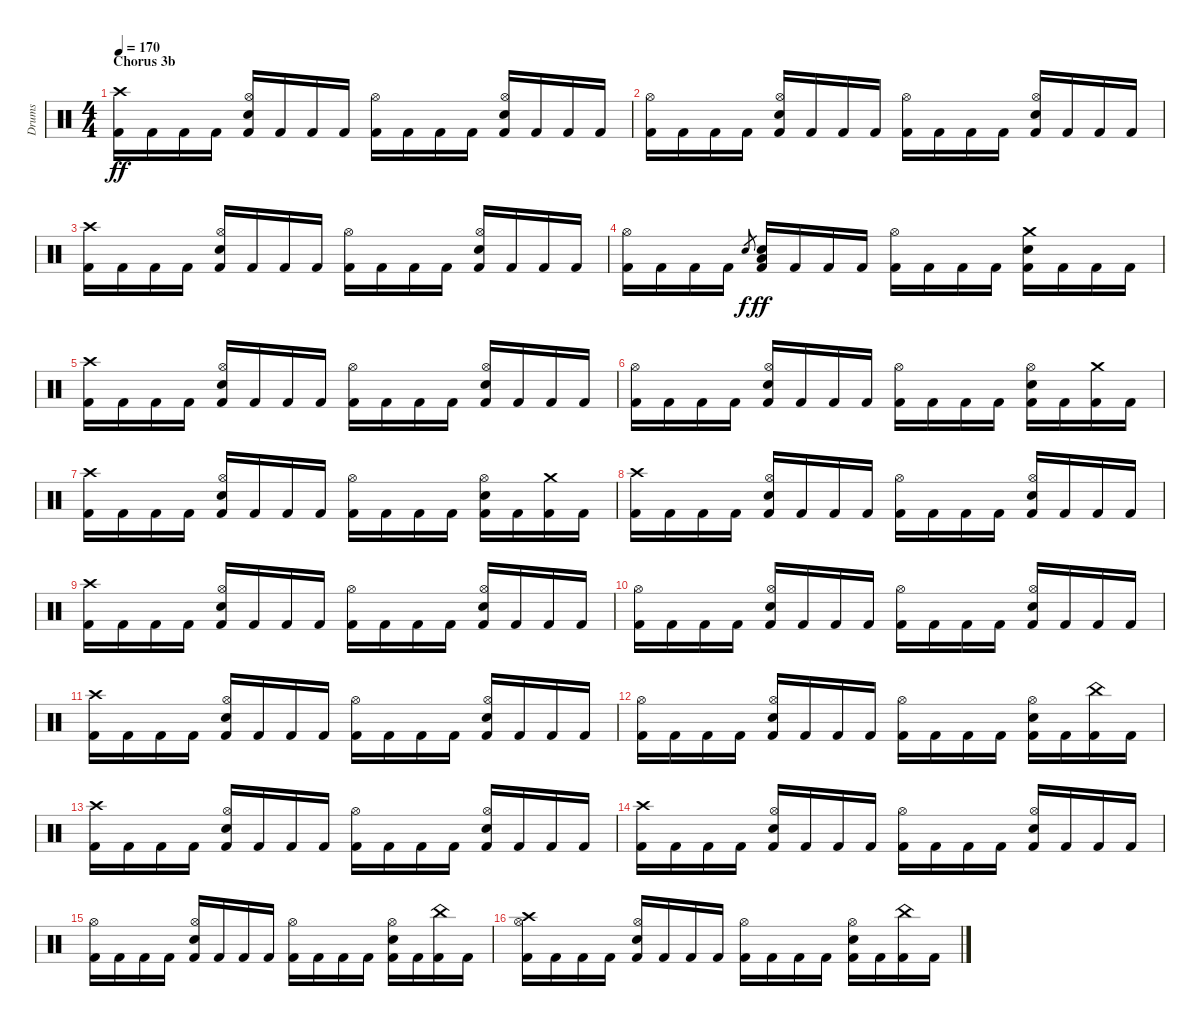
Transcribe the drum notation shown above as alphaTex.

\track ("Drums" "Drums") {instrument percussion}
\staff {score}
\articulation defaults
\ts (4 4)
\section ("" "Chorus 3b")
\tempo 170
\clef neutral
\ks c
("Crash high (hit)" "Kick (hit) 2").16{dy ff} "Kick (hit) 2".16 "Kick (hit) 2".16 "Kick (hit) 2".16 ("Hi-Hat (open)" "Snare (hit) 2" "Kick (hit) 2").16 "Kick (hit) 2".16 "Kick (hit) 2".16 "Kick (hit) 2".16 ("Hi-Hat (open)" "Kick (hit) 2").16 "Kick (hit) 2".16 "Kick (hit) 2".16 "Kick (hit) 2".16 ("Hi-Hat (open)" "Snare (hit) 2" "Kick (hit) 2").16 "Kick (hit) 2".16 "Kick (hit) 2".16 "Kick (hit) 2".16 |
("Hi-Hat (open)" "Kick (hit) 2").16 "Kick (hit) 2".16 "Kick (hit) 2".16 "Kick (hit) 2".16 ("Hi-Hat (open)" "Snare (hit) 2" "Kick (hit) 2").16 "Kick (hit) 2".16 "Kick (hit) 2".16 "Kick (hit) 2".16 ("Hi-Hat (open)" "Kick (hit) 2").16 "Kick (hit) 2".16 "Kick (hit) 2".16 "Kick (hit) 2".16 ("Hi-Hat (open)" "Snare (hit) 2" "Kick (hit) 2").16 "Kick (hit) 2".16 "Kick (hit) 2".16 "Kick (hit) 2".16 |
("Crash high (hit)" "Kick (hit) 2").16 "Kick (hit) 2".16 "Kick (hit) 2".16 "Kick (hit) 2".16 ("Hi-Hat (open)" "Snare (hit) 2" "Kick (hit) 2").16 "Kick (hit) 2".16 "Kick (hit) 2".16 "Kick (hit) 2".16 ("Hi-Hat (open)" "Kick (hit) 2").16 "Kick (hit) 2".16 "Kick (hit) 2".16 "Kick (hit) 2".16 ("Hi-Hat (open)" "Snare (hit) 2" "Kick (hit) 2").16 "Kick (hit) 2".16 "Kick (hit) 2".16 "Kick (hit) 2".16 |
("Hi-Hat (open)" "Kick (hit) 2").16 "Kick (hit) 2".16 "Kick (hit) 2".16 "Kick (hit) 2".16 "Electric Snare (hit)".8{gr dy f} ("Electric Snare (hit)" "Low Tom (hit)" "Kick (hit) 2").16{dy ff} "Kick (hit) 2".16 "Kick (hit) 2".16 "Kick (hit) 2".16 ("Hi-Hat (open)" "Kick (hit) 2").16 "Kick (hit) 2".16 "Kick (hit) 2".16 "Kick (hit) 2".16 ("Crash medium (hit)" "Snare (hit) 2" "Kick (hit) 2").16 "Kick (hit) 2".16 "Kick (hit) 2".16 "Kick (hit) 2".16 |
("Crash high (hit)" "Kick (hit) 2").16 "Kick (hit) 2".16 "Kick (hit) 2".16 "Kick (hit) 2".16 ("Hi-Hat (open)" "Snare (hit) 2" "Kick (hit) 2").16 "Kick (hit) 2".16 "Kick (hit) 2".16 "Kick (hit) 2".16 ("Hi-Hat (open)" "Kick (hit) 2").16 "Kick (hit) 2".16 "Kick (hit) 2".16 "Kick (hit) 2".16 ("Hi-Hat (open)" "Snare (hit) 2" "Kick (hit) 2").16 "Kick (hit) 2".16 "Kick (hit) 2".16 "Kick (hit) 2".16 |
("Hi-Hat (open)" "Kick (hit) 2").16 "Kick (hit) 2".16 "Kick (hit) 2".16 "Kick (hit) 2".16 ("Hi-Hat (open)" "Snare (hit) 2" "Kick (hit) 2").16 "Kick (hit) 2".16 "Kick (hit) 2".16 "Kick (hit) 2".16 ("Hi-Hat (open)" "Kick (hit) 2").16 "Kick (hit) 2".16 "Kick (hit) 2".16 "Kick (hit) 2".16 ("Hi-Hat (open)" "Snare (hit) 2" "Kick (hit) 2").16 "Kick (hit) 2".16 ("Crash medium (hit)" "Kick (hit) 2").16 "Kick (hit) 2".16 |
("Crash high (hit)" "Kick (hit) 2").16 "Kick (hit) 2".16 "Kick (hit) 2".16 "Kick (hit) 2".16 ("Hi-Hat (open)" "Snare (hit) 2" "Kick (hit) 2").16 "Kick (hit) 2".16 "Kick (hit) 2".16 "Kick (hit) 2".16 ("Hi-Hat (open)" "Kick (hit) 2").16 "Kick (hit) 2".16 "Kick (hit) 2".16 "Kick (hit) 2".16 ("Hi-Hat (open)" "Snare (hit) 2" "Kick (hit) 2").16 "Kick (hit) 2".16 ("Crash medium (hit)" "Kick (hit) 2").16 "Kick (hit) 2".16 |
("Crash high (hit)" "Kick (hit) 2").16 "Kick (hit) 2".16 "Kick (hit) 2".16 "Kick (hit) 2".16 ("Hi-Hat (open)" "Snare (hit) 2" "Kick (hit) 2").16 "Kick (hit) 2".16 "Kick (hit) 2".16 "Kick (hit) 2".16 ("Hi-Hat (open)" "Kick (hit) 2").16 "Kick (hit) 2".16 "Kick (hit) 2".16 "Kick (hit) 2".16 ("Hi-Hat (open)" "Snare (hit) 2" "Kick (hit) 2").16 "Kick (hit) 2".16 "Kick (hit) 2".16 "Kick (hit) 2".16 |
("Crash high (hit)" "Kick (hit) 2").16 "Kick (hit) 2".16 "Kick (hit) 2".16 "Kick (hit) 2".16 ("Hi-Hat (open)" "Snare (hit) 2" "Kick (hit) 2").16 "Kick (hit) 2".16 "Kick (hit) 2".16 "Kick (hit) 2".16 ("Hi-Hat (open)" "Kick (hit) 2").16 "Kick (hit) 2".16 "Kick (hit) 2".16 "Kick (hit) 2".16 ("Hi-Hat (open)" "Snare (hit) 2" "Kick (hit) 2").16 "Kick (hit) 2".16 "Kick (hit) 2".16 "Kick (hit) 2".16 |
("Hi-Hat (open)" "Kick (hit) 2").16 "Kick (hit) 2".16 "Kick (hit) 2".16 "Kick (hit) 2".16 ("Hi-Hat (open)" "Snare (hit) 2" "Kick (hit) 2").16 "Kick (hit) 2".16 "Kick (hit) 2".16 "Kick (hit) 2".16 ("Hi-Hat (open)" "Kick (hit) 2").16 "Kick (hit) 2".16 "Kick (hit) 2".16 "Kick (hit) 2".16 ("Hi-Hat (open)" "Snare (hit) 2" "Kick (hit) 2").16 "Kick (hit) 2".16 "Kick (hit) 2".16 "Kick (hit) 2".16 |
("Crash high (hit)" "Kick (hit) 2").16 "Kick (hit) 2".16 "Kick (hit) 2".16 "Kick (hit) 2".16 ("Hi-Hat (open)" "Snare (hit) 2" "Kick (hit) 2").16 "Kick (hit) 2".16 "Kick (hit) 2".16 "Kick (hit) 2".16 ("Hi-Hat (open)" "Kick (hit) 2").16 "Kick (hit) 2".16 "Kick (hit) 2".16 "Kick (hit) 2".16 ("Hi-Hat (open)" "Snare (hit) 2" "Kick (hit) 2").16 "Kick (hit) 2".16 "Kick (hit) 2".16 "Kick (hit) 2".16 |
("Hi-Hat (open)" "Kick (hit) 2").16 "Kick (hit) 2".16 "Kick (hit) 2".16 "Kick (hit) 2".16 ("Hi-Hat (open)" "Snare (hit) 2" "Kick (hit) 2").16 "Kick (hit) 2".16 "Kick (hit) 2".16 "Kick (hit) 2".16 ("Hi-Hat (open)" "Kick (hit) 2").16 "Kick (hit) 2".16 "Kick (hit) 2".16 "Kick (hit) 2".16 ("Hi-Hat (open)" "Snare (hit) 2" "Kick (hit) 2").16 "Kick (hit) 2".16 ("China (hit)" "Kick (hit) 2").16 "Kick (hit) 2".16 |
("Crash high (hit)" "Kick (hit) 2").16 "Kick (hit) 2".16 "Kick (hit) 2".16 "Kick (hit) 2".16 ("Hi-Hat (open)" "Snare (hit) 2" "Kick (hit) 2").16 "Kick (hit) 2".16 "Kick (hit) 2".16 "Kick (hit) 2".16 ("Hi-Hat (open)" "Kick (hit) 2").16 "Kick (hit) 2".16 "Kick (hit) 2".16 "Kick (hit) 2".16 ("Hi-Hat (open)" "Snare (hit) 2" "Kick (hit) 2").16 "Kick (hit) 2".16 "Kick (hit) 2".16 "Kick (hit) 2".16 |
("Crash high (hit)" "Kick (hit) 2").16 "Kick (hit) 2".16 "Kick (hit) 2".16 "Kick (hit) 2".16 ("Hi-Hat (open)" "Snare (hit) 2" "Kick (hit) 2").16 "Kick (hit) 2".16 "Kick (hit) 2".16 "Kick (hit) 2".16 ("Hi-Hat (open)" "Kick (hit) 2").16 "Kick (hit) 2".16 "Kick (hit) 2".16 "Kick (hit) 2".16 ("Hi-Hat (open)" "Snare (hit) 2" "Kick (hit) 2").16 "Kick (hit) 2".16 "Kick (hit) 2".16 "Kick (hit) 2".16 |
("Hi-Hat (open)" "Kick (hit) 2").16 "Kick (hit) 2".16 "Kick (hit) 2".16 "Kick (hit) 2".16 ("Hi-Hat (open)" "Snare (hit) 2" "Kick (hit) 2").16 "Kick (hit) 2".16 "Kick (hit) 2".16 "Kick (hit) 2".16 ("Hi-Hat (open)" "Kick (hit) 2").16 "Kick (hit) 2".16 "Kick (hit) 2".16 "Kick (hit) 2".16 ("Hi-Hat (open)" "Snare (hit) 2" "Kick (hit) 2").16 "Kick (hit) 2".16 ("China (hit)" "Kick (hit) 2").16 "Kick (hit) 2".16 |
("Crash high (hit)" "Hi-Hat (open)" "Kick (hit) 2").16 "Kick (hit) 2".16 "Kick (hit) 2".16 "Kick (hit) 2".16 ("Hi-Hat (open)" "Snare (hit) 2" "Kick (hit) 2").16 "Kick (hit) 2".16 "Kick (hit) 2".16 "Kick (hit) 2".16 ("Hi-Hat (open)" "Kick (hit) 2").16 "Kick (hit) 2".16 "Kick (hit) 2".16 "Kick (hit) 2".16 ("Hi-Hat (open)" "Snare (hit) 2" "Kick (hit) 2").16 "Kick (hit) 2".16 ("China (hit)" "Kick (hit) 2").16 "Kick (hit) 2".16
